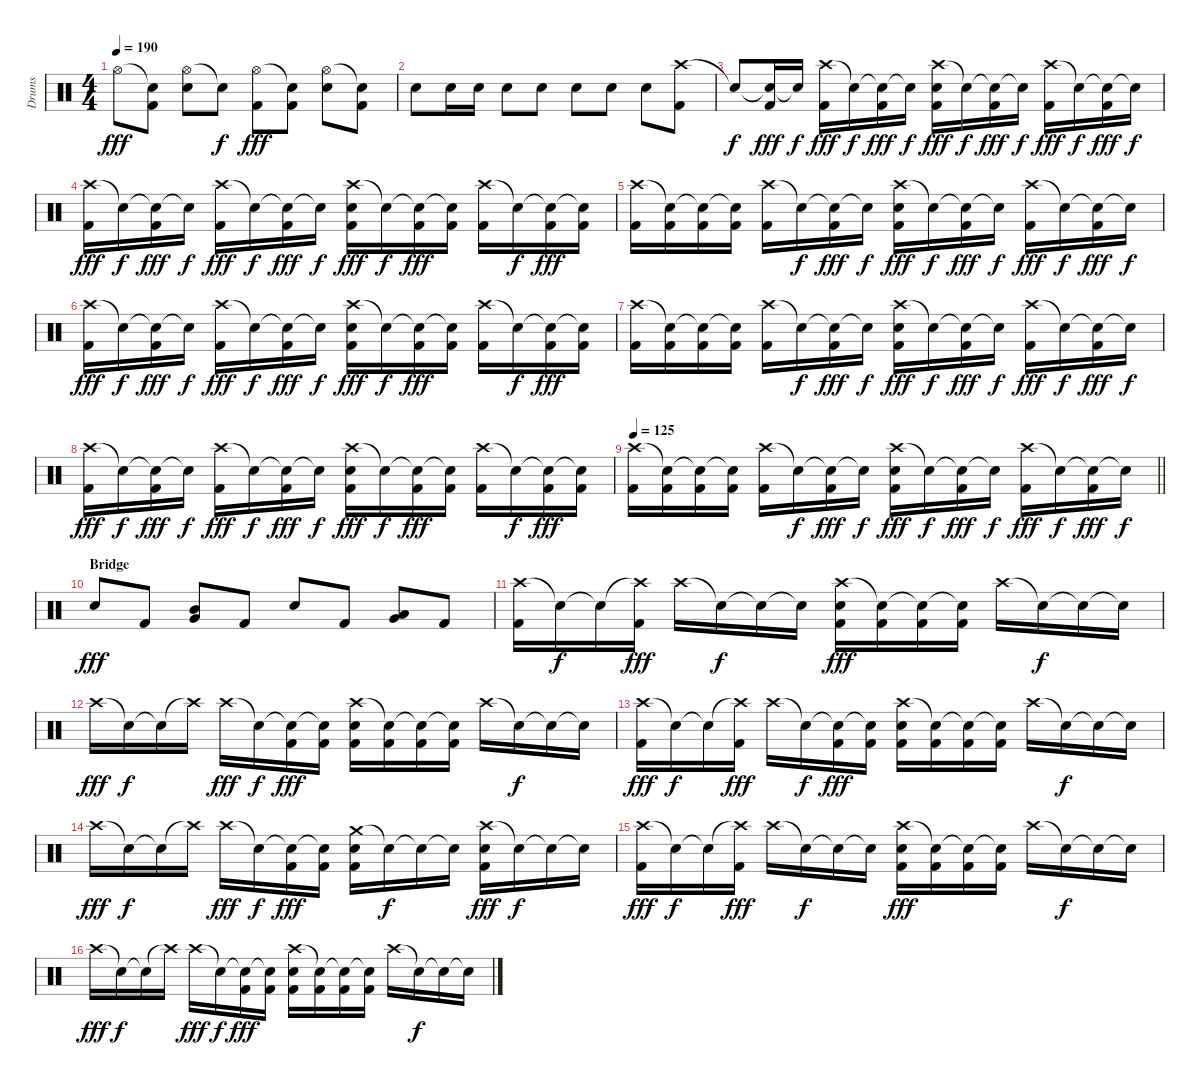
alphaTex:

\track ("Drums" "Drums") {instrument percussion}
\staff {score}
\articulation defaults
\ts (4 4)
\tempo 190
\clef neutral
\ks c "Hi-Hat (open)".8{dy fff}
("Snare (hit)"{t} "Kick (hit) 2").8 ("Hi-Hat (open)" "Electric Snare (hit)").8 "Snare (hit)"{t}.8{dy f} ("Hi-Hat (open)" "Kick (hit) 2").8{dy fff} ("Snare (hit)"{t} "Kick (hit) 2").8 ("Hi-Hat (open)" "Electric Snare (hit)").8 ("Snare (hit)"{t} "Kick (hit) 2").8 |
"Electric Snare (hit)".8 "Electric Snare (hit)".16 "Electric Snare (hit)".16 "Electric Snare (hit)".8 "Electric Snare (hit)".8 "Electric Snare (hit)".8 "Electric Snare (hit)".8 "Electric Snare (hit)".8 ("Crash high (hit)" "Kick (hit) 2").8 |
"Snare (hit)"{t}.8{dy f} ("Snare (hit)"{t} "Kick (hit) 2").16{dy fff} "Snare (hit)"{t}.16{dy f} ("Crash high (hit)" "Kick (hit) 2").16{dy fff} "Snare (hit)"{t}.16{dy f} ("Snare (hit)"{t} "Kick (hit) 2").16{dy fff} "Snare (hit)"{t}.16{dy f} ("Crash high (hit)" "Electric Snare (hit)" "Kick (hit) 2").16{dy fff} "Snare (hit)"{t}.16{dy f} ("Snare (hit)"{t} "Kick (hit) 2").16{dy fff} "Snare (hit)"{t}.16{dy f} ("Crash high (hit)" "Kick (hit) 2").16{dy fff} "Snare (hit)"{t}.16{dy f} ("Snare (hit)"{t} "Kick (hit) 2").16{dy fff} "Snare (hit)"{t}.16{dy f} |
("Crash high (hit)" "Kick (hit) 2").16{dy fff} "Snare (hit)"{t}.16{dy f} ("Snare (hit)"{t} "Kick (hit) 2").16{dy fff} "Snare (hit)"{t}.16{dy f} ("Crash high (hit)" "Kick (hit) 2").16{dy fff} "Snare (hit)"{t}.16{dy f} ("Snare (hit)"{t} "Kick (hit) 2").16{dy fff} "Snare (hit)"{t}.16{dy f} ("Crash high (hit)" "Electric Snare (hit)" "Kick (hit) 2").16{dy fff} "Snare (hit)"{t}.16{dy f} ("Snare (hit)"{t} "Kick (hit) 2").16{dy fff} ("Snare (hit)"{t} "Kick (hit) 2").16 ("Crash high (hit)" "Kick (hit) 2").16 "Snare (hit)"{t}.16{dy f} ("Snare (hit)"{t} "Kick (hit) 2").16{dy fff} ("Snare (hit)"{t} "Kick (hit) 2").16 |
("Crash high (hit)" "Kick (hit) 2").16 ("Snare (hit)"{t} "Kick (hit) 2").16 ("Snare (hit)"{t} "Kick (hit) 2").16 ("Snare (hit)"{t} "Kick (hit) 2").16 ("Crash high (hit)" "Kick (hit) 2").16 "Snare (hit)"{t}.16{dy f} ("Snare (hit)"{t} "Kick (hit) 2").16{dy fff} "Snare (hit)"{t}.16{dy f} ("Crash high (hit)" "Electric Snare (hit)" "Kick (hit) 2").16{dy fff} "Snare (hit)"{t}.16{dy f} ("Snare (hit)"{t} "Kick (hit) 2").16{dy fff} "Snare (hit)"{t}.16{dy f} ("Crash high (hit)" "Kick (hit) 2").16{dy fff} "Snare (hit)"{t}.16{dy f} ("Snare (hit)"{t} "Kick (hit) 2").16{dy fff} "Snare (hit)"{t}.16{dy f} |
("Crash high (hit)" "Kick (hit) 2").16{dy fff} "Snare (hit)"{t}.16{dy f} ("Snare (hit)"{t} "Kick (hit) 2").16{dy fff} "Snare (hit)"{t}.16{dy f} ("Crash high (hit)" "Kick (hit) 2").16{dy fff} "Snare (hit)"{t}.16{dy f} ("Snare (hit)"{t} "Kick (hit) 2").16{dy fff} "Snare (hit)"{t}.16{dy f} ("Crash high (hit)" "Electric Snare (hit)" "Kick (hit) 2").16{dy fff} "Snare (hit)"{t}.16{dy f} ("Snare (hit)"{t} "Kick (hit) 2").16{dy fff} ("Snare (hit)"{t} "Kick (hit) 2").16 ("Crash high (hit)" "Kick (hit) 2").16 "Snare (hit)"{t}.16{dy f} ("Snare (hit)"{t} "Kick (hit) 2").16{dy fff} ("Snare (hit)"{t} "Kick (hit) 2").16 |
("Crash high (hit)" "Kick (hit) 2").16 ("Snare (hit)"{t} "Kick (hit) 2").16 ("Snare (hit)"{t} "Kick (hit) 2").16 ("Snare (hit)"{t} "Kick (hit) 2").16 ("Crash high (hit)" "Kick (hit) 2").16 "Snare (hit)"{t}.16{dy f} ("Snare (hit)"{t} "Kick (hit) 2").16{dy fff} "Snare (hit)"{t}.16{dy f} ("Crash high (hit)" "Electric Snare (hit)" "Kick (hit) 2").16{dy fff} "Snare (hit)"{t}.16{dy f} ("Snare (hit)"{t} "Kick (hit) 2").16{dy fff} "Snare (hit)"{t}.16{dy f} ("Crash high (hit)" "Kick (hit) 2").16{dy fff} "Snare (hit)"{t}.16{dy f} ("Snare (hit)"{t} "Kick (hit) 2").16{dy fff} "Snare (hit)"{t}.16{dy f} |
("Crash high (hit)" "Kick (hit) 2").16{dy fff} "Snare (hit)"{t}.16{dy f} ("Snare (hit)"{t} "Kick (hit) 2").16{dy fff} "Snare (hit)"{t}.16{dy f} ("Crash high (hit)" "Kick (hit) 2").16{dy fff} "Snare (hit)"{t}.16{dy f} ("Snare (hit)"{t} "Kick (hit) 2").16{dy fff} "Snare (hit)"{t}.16{dy f} ("Crash high (hit)" "Electric Snare (hit)" "Kick (hit) 2").16{dy fff} "Snare (hit)"{t}.16{dy f} ("Snare (hit)"{t} "Kick (hit) 2").16{dy fff} ("Snare (hit)"{t} "Kick (hit) 2").16 ("Crash high (hit)" "Kick (hit) 2").16 "Snare (hit)"{t}.16{dy f} ("Snare (hit)"{t} "Kick (hit) 2").16{dy fff} ("Snare (hit)"{t} "Kick (hit) 2").16 |
\tempo 125
\barLineRight lightlight
("Crash high (hit)" "Kick (hit) 2").16 ("Snare (hit)"{t} "Kick (hit) 2").16 ("Snare (hit)"{t} "Kick (hit) 2").16 ("Snare (hit)"{t} "Kick (hit) 2").16 ("Crash high (hit)" "Kick (hit) 2").16 "Snare (hit)"{t}.16{dy f} ("Snare (hit)"{t} "Kick (hit) 2").16{dy fff} "Snare (hit)"{t}.16{dy f} ("Crash high (hit)" "Electric Snare (hit)" "Kick (hit) 2").16{dy fff} "Snare (hit)"{t}.16{dy f} ("Snare (hit)"{t} "Kick (hit) 2").16{dy fff} "Snare (hit)"{t}.16{dy f} ("Crash high (hit)" "Kick (hit) 2").16{dy fff} "Snare (hit)"{t}.16{dy f} ("Snare (hit)"{t} "Kick (hit) 2").16{dy fff} "Snare (hit)"{t}.16{dy f} |
\section ("" "Bridge")
"Electric Snare (hit)".8{dy fff} "Kick (hit) 2".8 ("Mid Tom (hit)" "Very Low Tom (hit)").8 "Kick (hit) 2".8 "Electric Snare (hit)".8 "Kick (hit) 2".8 ("Very Low Tom (hit)" "Low Floor Tom (hit)").8 "Kick (hit) 2".8 |
("Crash high (hit)" "Kick (hit) 2").16 "Snare (hit)"{t}.16{dy f} "Snare (hit)"{t}.16 ("Crash high (hit)"{t} "Kick (hit) 2").16{dy fff} "Crash high (hit)".16 "Snare (hit)"{t}.16{dy f} "Snare (hit)"{t}.16 "Snare (hit)"{t}.16 ("Crash high (hit)" "Electric Snare (hit)" "Kick (hit) 2").16{dy fff} ("Snare (hit)"{t} "Kick (hit) 2").16 ("Snare (hit)"{t} "Kick (hit) 2").16 ("Snare (hit)"{t} "Kick (hit) 2").16 "Crash high (hit)".16 "Snare (hit)"{t}.16{dy f} "Snare (hit)"{t}.16 "Snare (hit)"{t}.16 |
"Crash high (hit)".16{dy fff} "Snare (hit)"{t}.16{dy f} "Snare (hit)"{t}.16 "Crash high (hit)"{t}.16 "Crash high (hit)".16{dy fff} "Snare (hit)"{t}.16{dy f} ("Snare (hit)"{t} "Kick (hit) 2").16{dy fff} ("Snare (hit)"{t} "Kick (hit) 2").16 ("Crash high (hit)" "Electric Snare (hit)" "Kick (hit) 2").16 ("Snare (hit)"{t} "Kick (hit) 2").16 ("Snare (hit)"{t} "Kick (hit) 2").16 ("Snare (hit)"{t} "Kick (hit) 2").16 "Crash high (hit)".16 "Snare (hit)"{t}.16{dy f} "Snare (hit)"{t}.16 "Snare (hit)"{t}.16 |
("Crash high (hit)" "Kick (hit) 2").16{dy fff} "Snare (hit)"{t}.16{dy f} "Snare (hit)"{t}.16 ("Crash high (hit)"{t} "Kick (hit) 2").16{dy fff} "Crash high (hit)".16 "Snare (hit)"{t}.16{dy f} ("Snare (hit)"{t} "Kick (hit) 2").16{dy fff} ("Snare (hit)"{t} "Kick (hit) 2").16 ("Crash high (hit)" "Electric Snare (hit)" "Kick (hit) 2").16 ("Snare (hit)"{t} "Kick (hit) 2").16 ("Snare (hit)"{t} "Kick (hit) 2").16 ("Snare (hit)"{t} "Kick (hit) 2").16 "Crash high (hit)".16 "Snare (hit)"{t}.16{dy f} "Snare (hit)"{t}.16 "Snare (hit)"{t}.16 |
"Crash high (hit)".16{dy fff} "Snare (hit)"{t}.16{dy f} "Snare (hit)"{t}.16 "Crash high (hit)"{t}.16 "Crash high (hit)".16{dy fff} "Snare (hit)"{t}.16{dy f} ("Snare (hit)"{t} "Kick (hit) 2").16{dy fff} ("Snare (hit)"{t} "Kick (hit) 2").16 ("Crash medium (hit)" "Electric Snare (hit)" "Kick (hit) 2").16 "Snare (hit)"{t}.16{dy f} "Snare (hit)"{t}.16 "Snare (hit)"{t}.16 ("Crash high (hit)" "Electric Snare (hit)" "Kick (hit) 2").16{dy fff} "Snare (hit)"{t}.16{dy f} "Snare (hit)"{t}.16 "Snare (hit)"{t}.16 |
("Crash high (hit)" "Kick (hit) 2").16{dy fff} "Snare (hit)"{t}.16{dy f} "Snare (hit)"{t}.16 ("Crash high (hit)"{t} "Kick (hit) 2").16{dy fff} "Crash high (hit)".16 "Snare (hit)"{t}.16{dy f} "Snare (hit)"{t}.16 "Snare (hit)"{t}.16 ("Crash high (hit)" "Electric Snare (hit)" "Kick (hit) 2").16{dy fff} ("Snare (hit)"{t} "Kick (hit) 2").16 ("Snare (hit)"{t} "Kick (hit) 2").16 ("Snare (hit)"{t} "Kick (hit) 2").16 "Crash high (hit)".16 "Snare (hit)"{t}.16{dy f} "Snare (hit)"{t}.16 "Snare (hit)"{t}.16 |
"Crash high (hit)".16{dy fff} "Snare (hit)"{t}.16{dy f} "Snare (hit)"{t}.16 "Crash high (hit)"{t}.16 "Crash high (hit)".16{dy fff} "Snare (hit)"{t}.16{dy f} ("Snare (hit)"{t} "Kick (hit) 2").16{dy fff} ("Snare (hit)"{t} "Kick (hit) 2").16 ("Crash high (hit)" "Electric Snare (hit)" "Kick (hit) 2").16 ("Snare (hit)"{t} "Kick (hit) 2").16 ("Snare (hit)"{t} "Kick (hit) 2").16 ("Snare (hit)"{t} "Kick (hit) 2").16 "Crash high (hit)".16 "Snare (hit)"{t}.16{dy f} "Snare (hit)"{t}.16 "Snare (hit)"{t}.16
